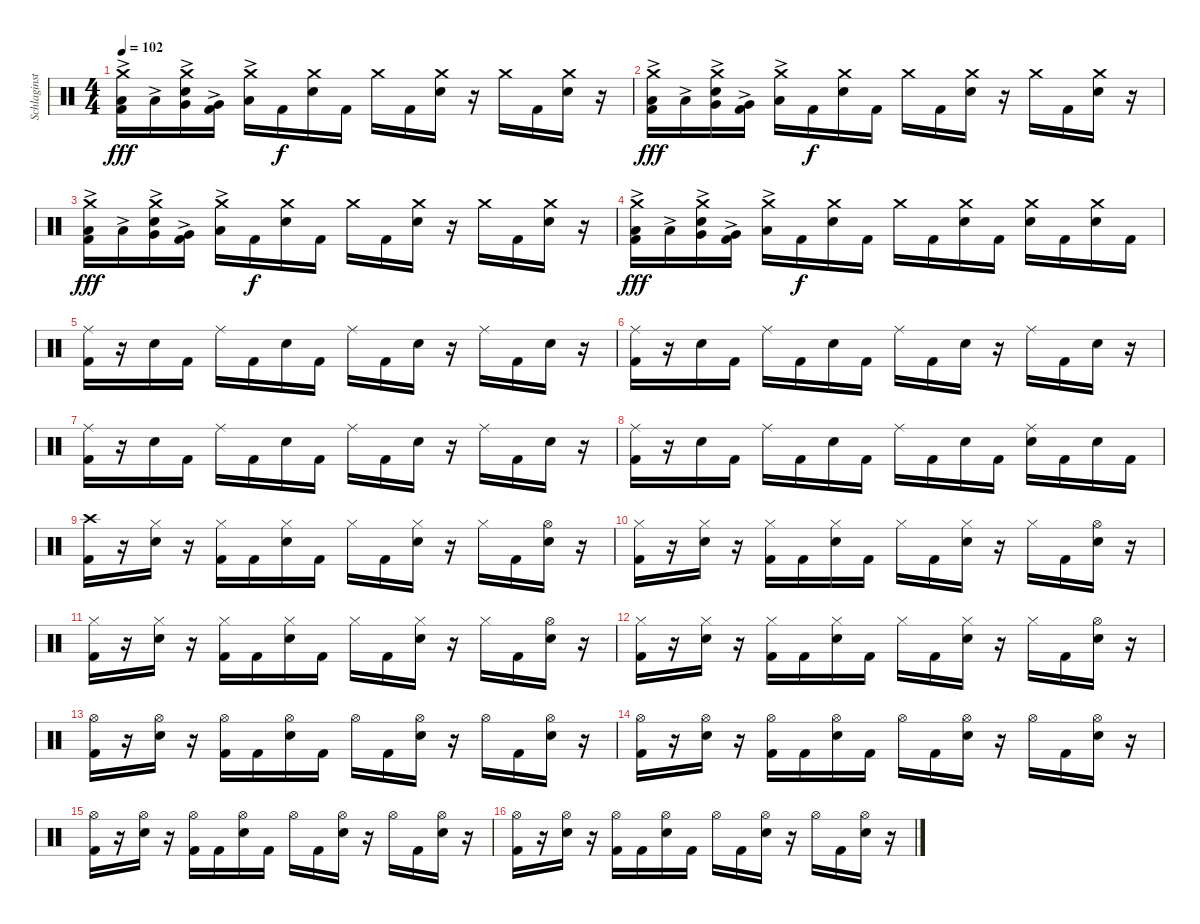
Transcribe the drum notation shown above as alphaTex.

\track ("Schlaginstrumente - Auswahl" "Schlaginst") {instrument percussion}
\staff {score}
\articulation defaults
\ts (4 4)
\tempo 102
\clef neutral
\ks c
("Crash medium (hit)" "Low Tom (hit)"{ac} "Kick (hit) 2").16{dy fff} "Low Tom (hit)"{ac}.16 ("Crash medium (hit)" "Very Low Tom (hit)"{ac} "Snare (hit) 2").16 ("Very Low Tom (hit)"{ac} "Kick (hit) 2").16 ("Crash medium (hit)" "Low Floor Tom (hit)"{ac}).16 "Kick (hit) 2".16{dy f} ("Crash medium (hit)" "Snare (hit) 2").16 "Kick (hit) 2".16 "Crash medium (hit)".16 "Kick (hit) 2".16 ("Crash medium (hit)" "Snare (hit) 2").16 r.16 "Crash medium (hit)".16 "Kick (hit) 2".16 ("Crash medium (hit)" "Snare (hit) 2").16 r.16 |
("Crash medium (hit)" "Low Tom (hit)"{ac} "Kick (hit) 2").16{dy fff} "Low Tom (hit)"{ac}.16 ("Crash medium (hit)" "Very Low Tom (hit)"{ac} "Snare (hit) 2").16 ("Very Low Tom (hit)"{ac} "Kick (hit) 2").16 ("Crash medium (hit)" "Low Floor Tom (hit)"{ac}).16 "Kick (hit) 2".16{dy f} ("Crash medium (hit)" "Snare (hit) 2").16 "Kick (hit) 2".16 "Crash medium (hit)".16 "Kick (hit) 2".16 ("Crash medium (hit)" "Snare (hit) 2").16 r.16 "Crash medium (hit)".16 "Kick (hit) 2".16 ("Crash medium (hit)" "Snare (hit) 2").16 r.16 |
("Crash medium (hit)" "Low Tom (hit)"{ac} "Kick (hit) 2").16{dy fff} "Low Tom (hit)"{ac}.16 ("Crash medium (hit)" "Very Low Tom (hit)"{ac} "Snare (hit) 2").16 ("Very Low Tom (hit)"{ac} "Kick (hit) 2").16 ("Crash medium (hit)" "Low Floor Tom (hit)"{ac}).16 "Kick (hit) 2".16{dy f} ("Crash medium (hit)" "Snare (hit) 2").16 "Kick (hit) 2".16 "Crash medium (hit)".16 "Kick (hit) 2".16 ("Crash medium (hit)" "Snare (hit) 2").16 r.16 "Crash medium (hit)".16 "Kick (hit) 2".16 ("Crash medium (hit)" "Snare (hit) 2").16 r.16 |
("Crash medium (hit)" "Low Tom (hit)"{ac} "Kick (hit) 2").16{dy fff} "Low Tom (hit)"{ac}.16 ("Crash medium (hit)" "Very Low Tom (hit)"{ac} "Snare (hit) 2").16 ("Very Low Tom (hit)"{ac} "Kick (hit) 2").16 ("Crash medium (hit)" "Low Floor Tom (hit)"{ac}).16 "Kick (hit) 2".16{dy f} ("Crash medium (hit)" "Snare (hit) 2").16 "Kick (hit) 2".16 "Crash medium (hit)".16 "Kick (hit) 2".16 ("Crash medium (hit)" "Snare (hit) 2").16 "Kick (hit) 2".16 ("Crash medium (hit)" "Snare (hit) 2").16 "Kick (hit) 2".16 ("Crash medium (hit)" "Snare (hit) 2").16 "Kick (hit) 2".16 |
("Ride (middle)" "Kick (hit) 2").16 r.16 "Snare (hit) 2".16 "Kick (hit) 2".16 "Ride (middle)".16 "Kick (hit) 2".16 "Snare (hit) 2".16 "Kick (hit) 2".16 "Ride (middle)".16 "Kick (hit) 2".16 "Snare (hit) 2".16 r.16 "Ride (middle)".16 "Kick (hit) 2".16 "Snare (hit) 2".16 r.16 |
("Ride (middle)" "Kick (hit) 2").16 r.16 "Snare (hit) 2".16 "Kick (hit) 2".16 "Ride (middle)".16 "Kick (hit) 2".16 "Snare (hit) 2".16 "Kick (hit) 2".16 "Ride (middle)".16 "Kick (hit) 2".16 "Snare (hit) 2".16 r.16 "Ride (middle)".16 "Kick (hit) 2".16 "Snare (hit) 2".16 r.16 |
("Ride (middle)" "Kick (hit) 2").16 r.16 "Snare (hit) 2".16 "Kick (hit) 2".16 "Ride (middle)".16 "Kick (hit) 2".16 "Snare (hit) 2".16 "Kick (hit) 2".16 "Ride (middle)".16 "Kick (hit) 2".16 "Snare (hit) 2".16 r.16 "Ride (middle)".16 "Kick (hit) 2".16 "Snare (hit) 2".16 r.16 |
("Ride (middle)" "Kick (hit) 2").16 r.16 "Snare (hit) 2".16 "Kick (hit) 2".16 "Ride (middle)".16 "Kick (hit) 2".16 "Snare (hit) 2".16 "Kick (hit) 2".16 "Ride (middle)".16 "Kick (hit) 2".16 "Snare (hit) 2".16 "Kick (hit) 2".16 ("Ride (middle)" "Snare (hit) 2").16 "Kick (hit) 2".16 "Snare (hit) 2".16 "Kick (hit) 2".16 |
("Crash high (hit)" "Kick (hit) 2").16 r.16 ("Hi-Hat (closed)" "Snare (hit) 2").16 r.16 ("Hi-Hat (closed)" "Kick (hit) 2").16 "Kick (hit) 2".16 ("Hi-Hat (closed)" "Snare (hit) 2").16 "Kick (hit) 2".16 "Hi-Hat (closed)".16 "Kick (hit) 2".16 ("Hi-Hat (closed)" "Snare (hit) 2").16 r.16 "Hi-Hat (closed)".16 "Kick (hit) 2".16 ("Hi-Hat (open)" "Snare (hit) 2").16 r.16 |
("Hi-Hat (closed)" "Kick (hit) 2").16 r.16 ("Hi-Hat (closed)" "Snare (hit) 2").16 r.16 ("Hi-Hat (closed)" "Kick (hit) 2").16 "Kick (hit) 2".16 ("Hi-Hat (closed)" "Snare (hit) 2").16 "Kick (hit) 2".16 "Hi-Hat (closed)".16 "Kick (hit) 2".16 ("Hi-Hat (closed)" "Snare (hit) 2").16 r.16 "Hi-Hat (closed)".16 "Kick (hit) 2".16 ("Hi-Hat (open)" "Snare (hit) 2").16 r.16 |
("Hi-Hat (closed)" "Kick (hit) 2").16 r.16 ("Hi-Hat (closed)" "Snare (hit) 2").16 r.16 ("Hi-Hat (closed)" "Kick (hit) 2").16 "Kick (hit) 2".16 ("Hi-Hat (closed)" "Snare (hit) 2").16 "Kick (hit) 2".16 "Hi-Hat (closed)".16 "Kick (hit) 2".16 ("Hi-Hat (closed)" "Snare (hit) 2").16 r.16 "Hi-Hat (closed)".16 "Kick (hit) 2".16 ("Hi-Hat (open)" "Snare (hit) 2").16 r.16 |
("Hi-Hat (closed)" "Kick (hit) 2").16 r.16 ("Hi-Hat (closed)" "Snare (hit) 2").16 r.16 ("Hi-Hat (closed)" "Kick (hit) 2").16 "Kick (hit) 2".16 ("Hi-Hat (closed)" "Snare (hit) 2").16 "Kick (hit) 2".16 "Hi-Hat (closed)".16 "Kick (hit) 2".16 ("Hi-Hat (closed)" "Snare (hit) 2").16 r.16 "Hi-Hat (closed)".16 "Kick (hit) 2".16 ("Hi-Hat (open)" "Snare (hit) 2").16 r.16 |
("Hi-Hat (open)" "Kick (hit) 2").16 r.16 ("Hi-Hat (open)" "Snare (hit) 2").16 r.16 ("Hi-Hat (open)" "Kick (hit) 2").16 "Kick (hit) 2".16 ("Hi-Hat (open)" "Snare (hit) 2").16 "Kick (hit) 2".16 "Hi-Hat (open)".16 "Kick (hit) 2".16 ("Hi-Hat (open)" "Snare (hit) 2").16 r.16 "Hi-Hat (open)".16 "Kick (hit) 2".16 ("Hi-Hat (open)" "Snare (hit) 2").16 r.16 |
("Hi-Hat (open)" "Kick (hit) 2").16 r.16 ("Hi-Hat (open)" "Snare (hit) 2").16 r.16 ("Hi-Hat (open)" "Kick (hit) 2").16 "Kick (hit) 2".16 ("Hi-Hat (open)" "Snare (hit) 2").16 "Kick (hit) 2".16 "Hi-Hat (open)".16 "Kick (hit) 2".16 ("Hi-Hat (open)" "Snare (hit) 2").16 r.16 "Hi-Hat (open)".16 "Kick (hit) 2".16 ("Hi-Hat (open)" "Snare (hit) 2").16 r.16 |
("Hi-Hat (open)" "Kick (hit) 2").16 r.16 ("Hi-Hat (open)" "Snare (hit) 2").16 r.16 ("Hi-Hat (open)" "Kick (hit) 2").16 "Kick (hit) 2".16 ("Hi-Hat (open)" "Snare (hit) 2").16 "Kick (hit) 2".16 "Hi-Hat (open)".16 "Kick (hit) 2".16 ("Hi-Hat (open)" "Snare (hit) 2").16 r.16 "Hi-Hat (open)".16 "Kick (hit) 2".16 ("Hi-Hat (open)" "Snare (hit) 2").16 r.16 |
("Hi-Hat (open)" "Kick (hit) 2").16 r.16 ("Hi-Hat (open)" "Snare (hit) 2").16 r.16 ("Hi-Hat (open)" "Kick (hit) 2").16 "Kick (hit) 2".16 ("Hi-Hat (open)" "Snare (hit) 2").16 "Kick (hit) 2".16 "Hi-Hat (open)".16 "Kick (hit) 2".16 ("Hi-Hat (open)" "Snare (hit) 2").16 r.16 "Hi-Hat (open)".16 "Kick (hit) 2".16 ("Hi-Hat (open)" "Snare (hit) 2").16 r.16
